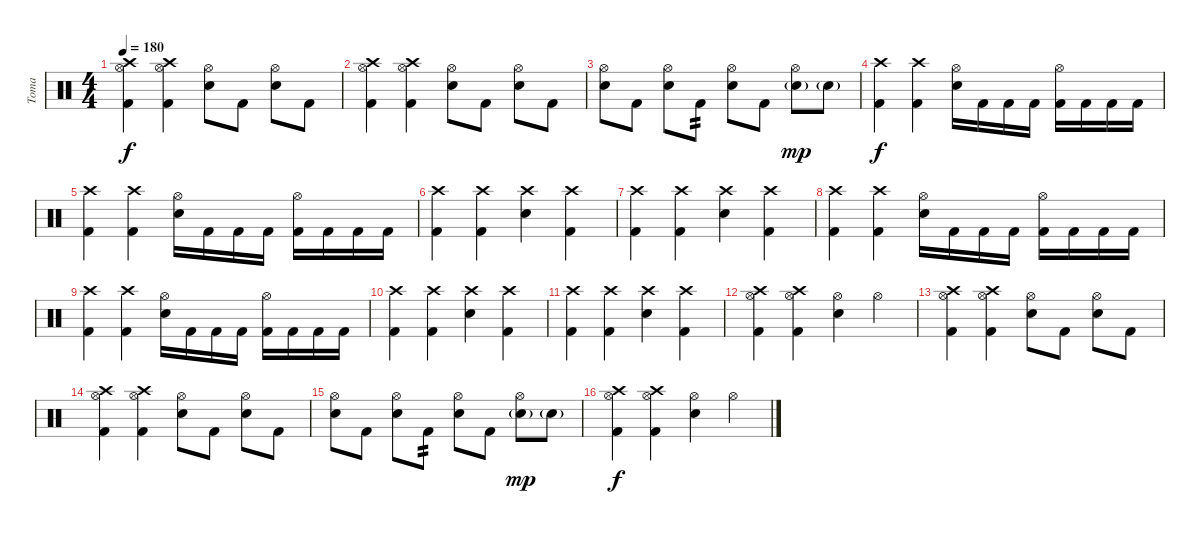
\track ("Toma" "Toma") {instrument percussion}
\staff {score}
\articulation defaults
\ts (4 4)
\tempo 180
\clef neutral
\ks c
("Crash high (hit)" "Hi-Hat (open)" "Kick (hit) 2").4{dy f} ("Crash high (hit)" "Hi-Hat (open)" "Kick (hit) 2").4 ("Hi-Hat (open)" "Electric Snare (hit)").8 "Kick (hit) 2".8 ("Hi-Hat (open)" "Snare (hit)").8 "Kick (hit) 2".8 |
("Crash high (hit)" "Hi-Hat (open)" "Kick (hit) 2").4 ("Crash high (hit)" "Hi-Hat (open)" "Kick (hit) 2").4 ("Hi-Hat (open)" "Electric Snare (hit)").8 "Kick (hit) 2".8 ("Hi-Hat (open)" "Snare (hit)").8 "Kick (hit) 2".8 |
("Hi-Hat (open)" "Snare (hit)").8 "Kick (hit) 2".8 ("Hi-Hat (open)" "Snare (hit)").8 "Kick (hit) 2".8{tp 2} ("Hi-Hat (open)" "Electric Snare (hit)").8 "Kick (hit) 2".8 ("Hi-Hat (open)" "Electric Snare (hit)"{g}).8{dy mp} "Electric Snare (hit)"{g}.8 |
("Crash high (hit)" "Kick (hit) 2").4{dy f} ("Crash high (hit)" "Kick (hit) 2").4 ("Hi-Hat (open)" "Electric Snare (hit)").16 "Kick (hit) 2".16 "Kick (hit) 2".16 "Kick (hit) 2".16 ("Hi-Hat (open)" "Kick (hit) 2").16 "Kick (hit) 2".16 "Kick (hit) 2".16 "Kick (hit) 2".16 |
("Crash high (hit)" "Kick (hit) 2").4 ("Crash high (hit)" "Kick (hit) 2").4 ("Hi-Hat (open)" "Electric Snare (hit)").16 "Kick (hit) 2".16 "Kick (hit) 2".16 "Kick (hit) 2".16 ("Hi-Hat (open)" "Kick (hit) 2").16 "Kick (hit) 2".16 "Kick (hit) 2".16 "Kick (hit) 2".16 |
("Crash high (hit)" "Kick (hit) 2").4 ("Crash high (hit)" "Kick (hit) 2").4 ("Crash high (hit)" "Electric Snare (hit)").4 ("Crash high (hit)" "Kick (hit) 2").4 |
("Crash high (hit)" "Kick (hit) 2").4 ("Crash high (hit)" "Kick (hit) 2").4 ("Crash high (hit)" "Electric Snare (hit)").4 ("Crash high (hit)" "Kick (hit) 2").4 |
("Crash high (hit)" "Kick (hit) 2").4 ("Crash high (hit)" "Kick (hit) 2").4 ("Hi-Hat (open)" "Electric Snare (hit)").16 "Kick (hit) 2".16 "Kick (hit) 2".16 "Kick (hit) 2".16 ("Hi-Hat (open)" "Kick (hit) 2").16 "Kick (hit) 2".16 "Kick (hit) 2".16 "Kick (hit) 2".16 |
("Crash high (hit)" "Kick (hit) 2").4 ("Crash high (hit)" "Kick (hit) 2").4 ("Hi-Hat (open)" "Electric Snare (hit)").16 "Kick (hit) 2".16 "Kick (hit) 2".16 "Kick (hit) 2".16 ("Hi-Hat (open)" "Kick (hit) 2").16 "Kick (hit) 2".16 "Kick (hit) 2".16 "Kick (hit) 2".16 |
("Crash high (hit)" "Kick (hit) 2").4 ("Crash high (hit)" "Kick (hit) 2").4 ("Crash high (hit)" "Electric Snare (hit)").4 ("Crash high (hit)" "Kick (hit) 2").4 |
("Crash high (hit)" "Kick (hit) 2").4 ("Crash high (hit)" "Kick (hit) 2").4 ("Crash high (hit)" "Electric Snare (hit)").4 ("Crash high (hit)" "Kick (hit) 2").4 |
("Crash high (hit)" "Hi-Hat (open)" "Kick (hit) 2").4 ("Crash high (hit)" "Hi-Hat (open)" "Kick (hit) 2").4 ("Hi-Hat (open)" "Electric Snare (hit)").4 "Hi-Hat (open)".4 |
("Crash high (hit)" "Hi-Hat (open)" "Kick (hit) 2").4 ("Crash high (hit)" "Hi-Hat (open)" "Kick (hit) 2").4 ("Hi-Hat (open)" "Electric Snare (hit)").8 "Kick (hit) 2".8 ("Hi-Hat (open)" "Snare (hit)").8 "Kick (hit) 2".8 |
("Crash high (hit)" "Hi-Hat (open)" "Kick (hit) 2").4 ("Crash high (hit)" "Hi-Hat (open)" "Kick (hit) 2").4 ("Hi-Hat (open)" "Electric Snare (hit)").8 "Kick (hit) 2".8 ("Hi-Hat (open)" "Snare (hit)").8 "Kick (hit) 2".8 |
("Hi-Hat (open)" "Snare (hit)").8 "Kick (hit) 2".8 ("Hi-Hat (open)" "Snare (hit)").8 "Kick (hit) 2".8{tp 2} ("Hi-Hat (open)" "Electric Snare (hit)").8 "Kick (hit) 2".8 ("Hi-Hat (open)" "Electric Snare (hit)"{g}).8{dy mp} "Electric Snare (hit)"{g}.8 |
("Crash high (hit)" "Hi-Hat (open)" "Kick (hit) 2").4{dy f} ("Crash high (hit)" "Hi-Hat (open)" "Kick (hit) 2").4 ("Hi-Hat (open)" "Electric Snare (hit)").4 "Hi-Hat (open)".4
